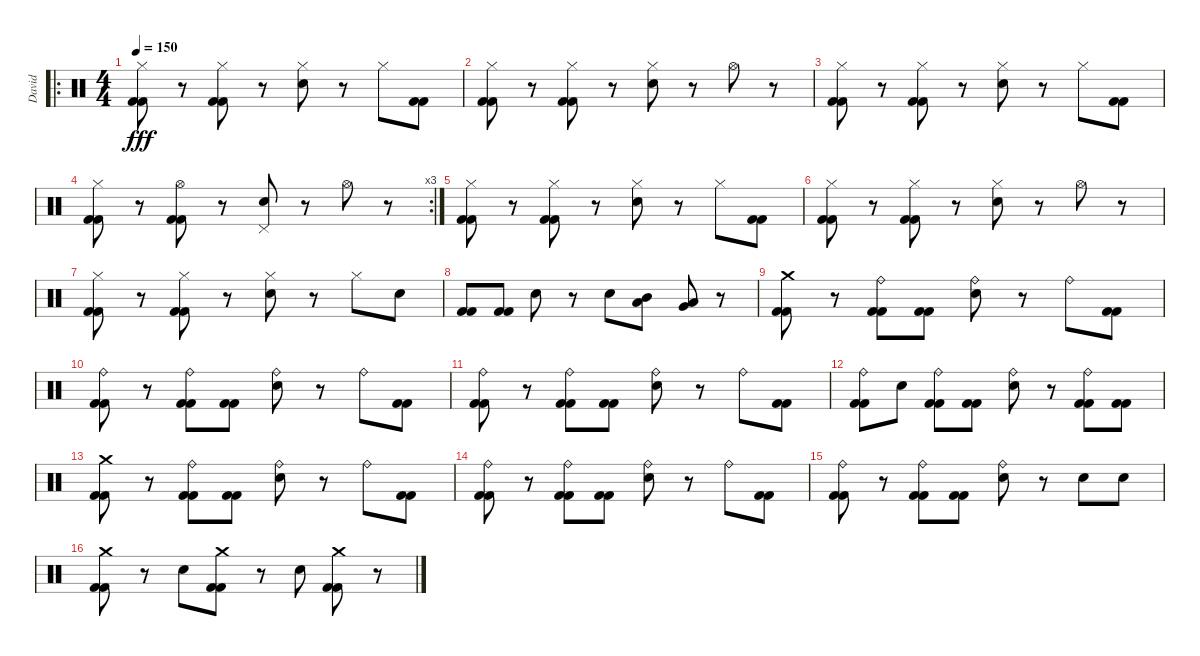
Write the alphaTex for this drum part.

\track ("David" "David") {instrument percussion}
\staff {score}
\articulation defaults
\ro
\ts (4 4)
\tempo 150
\clef neutral
\ks c
("Hi-Hat (closed)" "Kick (hit) 2" "Kick (hit) 2").8{dy fff} r.8 ("Hi-Hat (closed)" "Kick (hit) 2" "Kick (hit) 2").8 r.8 ("Hi-Hat (closed)" "Electric Snare (hit)").8 r.8 "Hi-Hat (closed)".8 ("Kick (hit) 2" "Kick (hit) 2").8 |
("Hi-Hat (closed)" "Kick (hit) 2" "Kick (hit) 2").8 r.8 ("Hi-Hat (closed)" "Kick (hit) 2" "Kick (hit) 2").8 r.8 ("Hi-Hat (closed)" "Electric Snare (hit)").8 r.8 "Hi-Hat (open)".8 r.8 |
("Hi-Hat (closed)" "Kick (hit) 2" "Kick (hit) 2").8 r.8 ("Hi-Hat (closed)" "Kick (hit) 2" "Kick (hit) 2").8 r.8 ("Hi-Hat (closed)" "Electric Snare (hit)").8 r.8 "Hi-Hat (closed)".8 ("Kick (hit) 2" "Kick (hit) 2").8 |
\rc 3
("Hi-Hat (closed)" "Kick (hit) 2" "Kick (hit) 2").8 r.8 ("Hi-Hat (open)" "Kick (hit) 2" "Kick (hit) 2").8 r.8 ("Pedal Hi-Hat (hit)" "Electric Snare (hit)").8 r.8 "Hi-Hat (open)".8 r.8 |
("Hi-Hat (closed)" "Kick (hit) 2" "Kick (hit) 2").8 r.8 ("Hi-Hat (closed)" "Kick (hit) 2" "Kick (hit) 2").8 r.8 ("Hi-Hat (closed)" "Electric Snare (hit)").8 r.8 "Hi-Hat (closed)".8 ("Kick (hit) 2" "Kick (hit) 2").8 |
("Hi-Hat (closed)" "Kick (hit) 2" "Kick (hit) 2").8 r.8 ("Hi-Hat (closed)" "Kick (hit) 2" "Kick (hit) 2").8 r.8 ("Hi-Hat (closed)" "Electric Snare (hit)").8 r.8 "Hi-Hat (open)".8 r.8 |
("Hi-Hat (closed)" "Kick (hit) 2" "Kick (hit) 2").8 r.8 ("Hi-Hat (closed)" "Kick (hit) 2" "Kick (hit) 2").8 r.8 ("Hi-Hat (closed)" "Electric Snare (hit)").8 r.8 "Hi-Hat (closed)".8 "Electric Snare (hit)".8 |
("Kick (hit) 2" "Kick (hit) 2").8 ("Kick (hit) 2" "Kick (hit) 2").8 "Electric Snare (hit)".8 r.8 "Electric Snare (hit)".8 ("Mid Tom (hit)" "Low Tom (hit)").8 ("Low Floor Tom (hit)" "Very Low Tom (hit)").8 r.8 |
("Crash medium (hit)" "Kick (hit) 2" "Kick (hit) 2").8 r.8 ("Ride (bell)" "Kick (hit) 2" "Kick (hit) 2").8 ("Kick (hit) 2" "Kick (hit) 2").8 ("Ride (bell)" "Electric Snare (hit)").8 r.8 "Ride (bell)".8 ("Kick (hit) 2" "Kick (hit) 2").8 |
("Ride (bell)" "Kick (hit) 2" "Kick (hit) 2").8 r.8 ("Ride (bell)" "Kick (hit) 2" "Kick (hit) 2").8 ("Kick (hit) 2" "Kick (hit) 2").8 ("Ride (bell)" "Electric Snare (hit)").8 r.8 "Ride (bell)".8 ("Kick (hit) 2" "Kick (hit) 2").8 |
("Ride (bell)" "Kick (hit) 2" "Kick (hit) 2").8 r.8 ("Ride (bell)" "Kick (hit) 2" "Kick (hit) 2").8 ("Kick (hit) 2" "Kick (hit) 2").8 ("Ride (bell)" "Electric Snare (hit)").8 r.8 "Ride (bell)".8 ("Kick (hit) 2" "Kick (hit) 2").8 |
("Ride (bell)" "Kick (hit) 2" "Kick (hit) 2").8 "Electric Snare (hit)".8 ("Ride (bell)" "Kick (hit) 2" "Kick (hit) 2").8 ("Kick (hit) 2" "Kick (hit) 2").8 ("Ride (bell)" "Electric Snare (hit)").8 r.8 ("Ride (bell)" "Kick (hit) 2" "Kick (hit) 2").8 ("Kick (hit) 2" "Kick (hit) 2").8 |
("Crash medium (hit)" "Kick (hit) 2" "Kick (hit) 2").8 r.8 ("Ride (bell)" "Kick (hit) 2" "Kick (hit) 2").8 ("Kick (hit) 2" "Kick (hit) 2").8 ("Ride (bell)" "Electric Snare (hit)").8 r.8 "Ride (bell)".8 ("Kick (hit) 2" "Kick (hit) 2").8 |
("Ride (bell)" "Kick (hit) 2" "Kick (hit) 2").8 r.8 ("Ride (bell)" "Kick (hit) 2" "Kick (hit) 2").8 ("Kick (hit) 2" "Kick (hit) 2").8 ("Ride (bell)" "Electric Snare (hit)").8 r.8 "Ride (bell)".8 ("Kick (hit) 2" "Kick (hit) 2").8 |
("Ride (bell)" "Kick (hit) 2" "Kick (hit) 2").8 r.8 ("Ride (bell)" "Kick (hit) 2" "Kick (hit) 2").8 ("Kick (hit) 2" "Kick (hit) 2").8 ("Ride (bell)" "Electric Snare (hit)").8 r.8 "Electric Snare (hit)".8 "Electric Snare (hit)".8 |
("Crash medium (hit)" "Kick (hit) 2" "Kick (hit) 2").8 r.8 "Electric Snare (hit)".8 ("Crash medium (hit)" "Kick (hit) 2" "Kick (hit) 2").8 r.8 "Electric Snare (hit)".8 ("Crash medium (hit)" "Kick (hit) 2" "Kick (hit) 2").8 r.8
